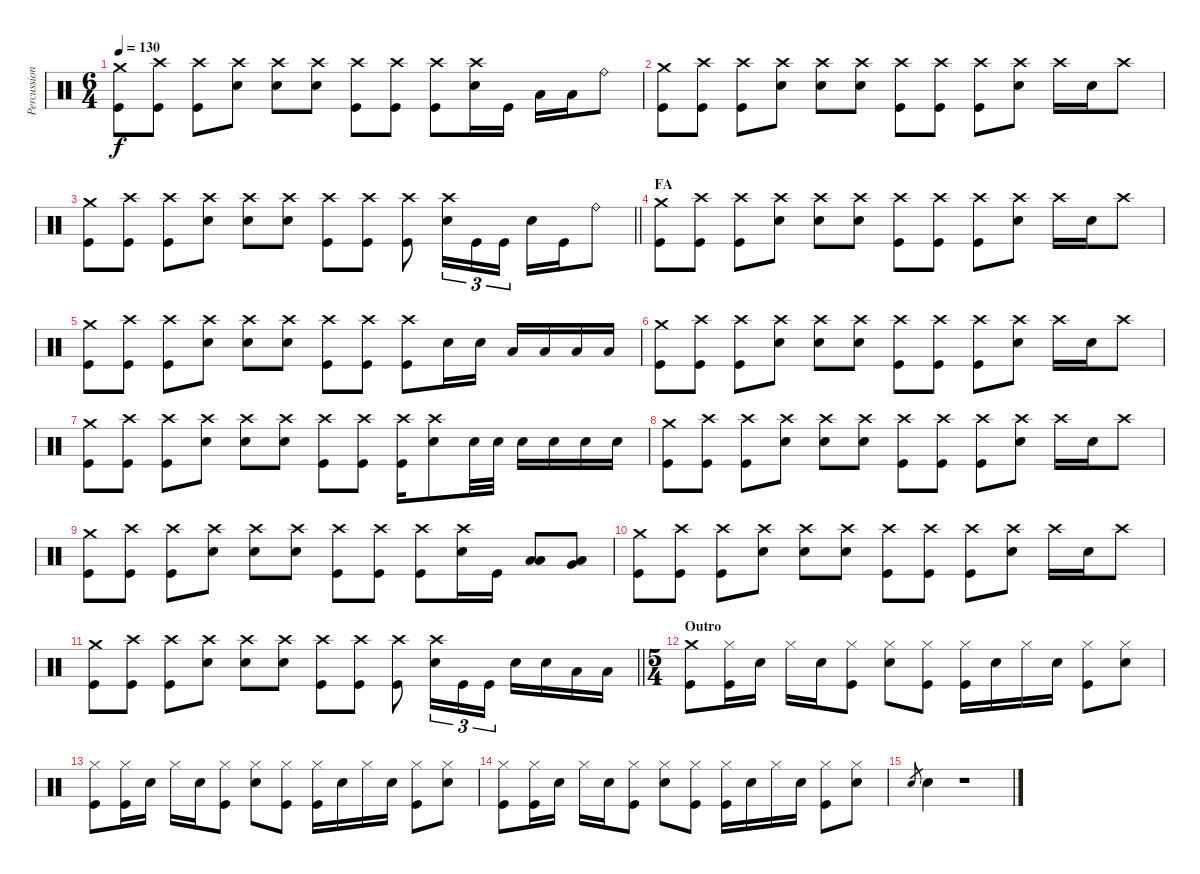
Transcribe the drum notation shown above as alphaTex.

\track ("Percussion" "Percussion") {instrument percussion}
\staff {score}
\articulation defaults
\ts (6 4)
\tempo 130
\clef neutral
\ks c
("Crash medium (hit)" "Kick (hit)").8{dy f} ("Crash high (hit)" "Kick (hit)").8 ("Crash high (hit)" "Kick (hit)").8 ("Crash high (hit)" "Snare (hit) 2").8 ("Crash high (hit)" "Snare (hit) 2").8 ("Crash high (hit)" "Snare (hit) 2").8 ("Crash high (hit)" "Kick (hit)").8 ("Crash high (hit)" "Kick (hit)").8 ("Crash high (hit)" "Kick (hit)").8 ("Crash high (hit)" "Snare (hit) 2").16 "Kick (hit)".16 "Low Tom (hit)".16 "Low Tom (hit)".16 "Ride (bell)".8 |
("Crash medium (hit)" "Kick (hit)").8 ("Crash high (hit)" "Kick (hit)").8 ("Crash high (hit)" "Kick (hit)").8 ("Crash high (hit)" "Snare (hit) 2").8 ("Crash high (hit)" "Snare (hit) 2").8 ("Crash high (hit)" "Snare (hit) 2").8 ("Crash high (hit)" "Kick (hit)").8 ("Crash high (hit)" "Kick (hit)").8 ("Crash high (hit)" "Kick (hit)").8 ("Crash high (hit)" "Snare (hit) 2").8 "Crash high (hit)".16 "Snare (hit) 2".16 "Crash high (hit)".8 |
\barLineRight lightlight
("Crash medium (hit)" "Kick (hit)").8 ("Crash high (hit)" "Kick (hit)").8 ("Crash high (hit)" "Kick (hit)").8 ("Crash high (hit)" "Snare (hit) 2").8 ("Crash high (hit)" "Snare (hit) 2").8 ("Crash high (hit)" "Snare (hit) 2").8 ("Crash high (hit)" "Kick (hit)").8 ("Crash high (hit)" "Kick (hit)").8 ("Crash high (hit)" "Kick (hit)").8 ("Crash high (hit)" "Snare (hit) 2").16{tu (3 2)} "Kick (hit)".16{tu (3 2)} "Kick (hit)".16{tu (3 2) beam splitsecondary} "Snare (hit) 2".16 "Kick (hit)".16 "Ride (bell)".8 |
\section ("" "FA")
("Crash medium (hit)" "Kick (hit)").8 ("Crash high (hit)" "Kick (hit)").8 ("Crash high (hit)" "Kick (hit)").8 ("Crash high (hit)" "Snare (hit) 2").8 ("Crash high (hit)" "Snare (hit) 2").8 ("Crash high (hit)" "Snare (hit) 2").8 ("Crash high (hit)" "Kick (hit)").8 ("Crash high (hit)" "Kick (hit)").8 ("Crash high (hit)" "Kick (hit)").8 ("Crash high (hit)" "Snare (hit) 2").8 "Crash high (hit)".16 "Snare (hit) 2".16 "Crash high (hit)".8 |
("Crash medium (hit)" "Kick (hit)").8 ("Crash high (hit)" "Kick (hit)").8 ("Crash high (hit)" "Kick (hit)").8 ("Crash high (hit)" "Snare (hit) 2").8 ("Crash high (hit)" "Snare (hit) 2").8 ("Crash high (hit)" "Snare (hit) 2").8 ("Crash high (hit)" "Kick (hit)").8 ("Crash high (hit)" "Kick (hit)").8 ("Crash high (hit)" "Kick (hit)").8 "Snare (hit) 2".16 "Snare (hit) 2".16 "Low Tom (hit)".16 "Low Tom (hit)".16 "Low Floor Tom (hit)".16 "Low Floor Tom (hit)".16 |
("Crash medium (hit)" "Kick (hit)").8 ("Crash high (hit)" "Kick (hit)").8 ("Crash high (hit)" "Kick (hit)").8 ("Crash high (hit)" "Snare (hit) 2").8 ("Crash high (hit)" "Snare (hit) 2").8 ("Crash high (hit)" "Snare (hit) 2").8 ("Crash high (hit)" "Kick (hit)").8 ("Crash high (hit)" "Kick (hit)").8 ("Crash high (hit)" "Kick (hit)").8 ("Crash high (hit)" "Snare (hit) 2").8 "Crash high (hit)".16 "Snare (hit) 2".16 "Crash high (hit)".8 |
("Crash medium (hit)" "Kick (hit)").8 ("Crash high (hit)" "Kick (hit)").8 ("Crash high (hit)" "Kick (hit)").8 ("Crash high (hit)" "Snare (hit) 2").8 ("Crash high (hit)" "Snare (hit) 2").8 ("Crash high (hit)" "Snare (hit) 2").8 ("Crash high (hit)" "Kick (hit)").8 ("Crash high (hit)" "Kick (hit)").8 ("Crash high (hit)" "Kick (hit)").16 ("Crash high (hit)" "Snare (hit) 2").8 "Snare (hit) 2".32 "Snare (hit) 2".32 "Snare (hit) 2".16 "Snare (hit) 2".16 "Snare (hit) 2".16 "Snare (hit) 2".16 |
("Crash medium (hit)" "Kick (hit)").8 ("Crash high (hit)" "Kick (hit)").8 ("Crash high (hit)" "Kick (hit)").8 ("Crash high (hit)" "Snare (hit) 2").8 ("Crash high (hit)" "Snare (hit) 2").8 ("Crash high (hit)" "Snare (hit) 2").8 ("Crash high (hit)" "Kick (hit)").8 ("Crash high (hit)" "Kick (hit)").8 ("Crash high (hit)" "Kick (hit)").8 ("Crash high (hit)" "Snare (hit) 2").8 "Crash high (hit)".16 "Snare (hit) 2".16 "Crash high (hit)".8 |
("Crash medium (hit)" "Kick (hit)").8 ("Crash high (hit)" "Kick (hit)").8 ("Crash high (hit)" "Kick (hit)").8 ("Crash high (hit)" "Snare (hit) 2").8 ("Crash high (hit)" "Snare (hit) 2").8 ("Crash high (hit)" "Snare (hit) 2").8 ("Crash high (hit)" "Kick (hit)").8 ("Crash high (hit)" "Kick (hit)").8 ("Crash high (hit)" "Kick (hit)").8 ("Crash high (hit)" "Snare (hit) 2").16 "Kick (hit)".16 ("Low Tom (hit)" "Low Floor Tom (hit)").8 ("Very Low Tom (hit)" "Low Floor Tom (hit)").8 |
("Crash medium (hit)" "Kick (hit)").8 ("Crash high (hit)" "Kick (hit)").8 ("Crash high (hit)" "Kick (hit)").8 ("Crash high (hit)" "Snare (hit) 2").8 ("Crash high (hit)" "Snare (hit) 2").8 ("Crash high (hit)" "Snare (hit) 2").8 ("Crash high (hit)" "Kick (hit)").8 ("Crash high (hit)" "Kick (hit)").8 ("Crash high (hit)" "Kick (hit)").8 ("Crash high (hit)" "Snare (hit) 2").8 "Crash high (hit)".16 "Snare (hit) 2".16 "Crash high (hit)".8 |
\barLineRight lightlight
("Crash medium (hit)" "Kick (hit)").8 ("Crash high (hit)" "Kick (hit)").8 ("Crash high (hit)" "Kick (hit)").8 ("Crash high (hit)" "Snare (hit) 2").8 ("Crash high (hit)" "Snare (hit) 2").8 ("Crash high (hit)" "Snare (hit) 2").8 ("Crash high (hit)" "Kick (hit)").8 ("Crash high (hit)" "Kick (hit)").8 ("Crash high (hit)" "Kick (hit)").8 ("Crash high (hit)" "Snare (hit) 2").16{tu (3 2)} "Kick (hit)".16{tu (3 2)} "Kick (hit)".16{tu (3 2) beam splitsecondary} "Snare (hit) 2".16 "Snare (hit) 2".16 "Low Tom (hit)".16 "Low Floor Tom (hit)".16 |
\ts (5 4)
\section ("" "Outro")
("Crash medium (hit)" "Kick (hit)").8 ("Hi-Hat (closed)" "Kick (hit)").16 "Snare (hit) 2".16 "Hi-Hat (closed)".16 "Snare (hit) 2".16 ("Hi-Hat (closed)" "Kick (hit)").8 ("Hi-Hat (closed)" "Snare (hit) 2").8 ("Hi-Hat (closed)" "Kick (hit)").8 ("Hi-Hat (closed)" "Kick (hit)").16 "Snare (hit) 2".16 "Hi-Hat (closed)".16 "Snare (hit) 2".16 ("Hi-Hat (closed)" "Kick (hit)").8 ("Hi-Hat (closed)" "Snare (hit) 2").8 |
("Hi-Hat (closed)" "Kick (hit)").8 ("Hi-Hat (closed)" "Kick (hit)").16 "Snare (hit) 2".16 "Hi-Hat (closed)".16 "Snare (hit) 2".16 ("Hi-Hat (closed)" "Kick (hit)").8 ("Hi-Hat (closed)" "Snare (hit) 2").8 ("Hi-Hat (closed)" "Kick (hit)").8 ("Hi-Hat (closed)" "Kick (hit)").16 "Snare (hit) 2".16 "Hi-Hat (closed)".16 "Snare (hit) 2".16 ("Hi-Hat (closed)" "Kick (hit)").8 ("Hi-Hat (closed)" "Snare (hit) 2").8 |
("Hi-Hat (closed)" "Kick (hit)").8 ("Hi-Hat (closed)" "Kick (hit)").16 "Snare (hit) 2".16 "Hi-Hat (closed)".16 "Snare (hit) 2".16 ("Hi-Hat (closed)" "Kick (hit)").8 ("Hi-Hat (closed)" "Snare (hit) 2").8 ("Hi-Hat (closed)" "Kick (hit)").8 ("Hi-Hat (closed)" "Kick (hit)").16 "Snare (hit) 2".16 "Hi-Hat (closed)".16 "Snare (hit) 2".16 ("Hi-Hat (closed)" "Kick (hit)").8 ("Hi-Hat (closed)" "Snare (hit) 2").8 |
"Snare (hit) 2".8{gr} "Snare (hit) 2".4 r.1
